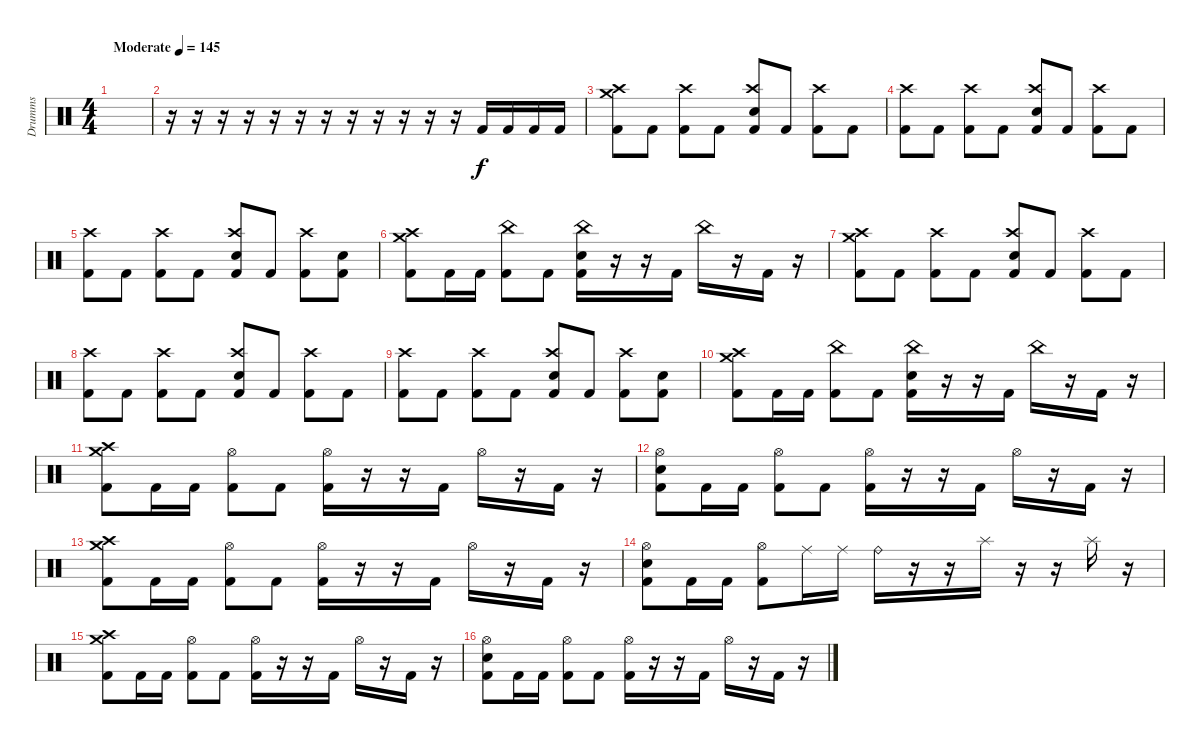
\track ("Drumms" "Drumms") {instrument percussion}
\staff {score}
\articulation defaults
\ts (4 4)
\tempo (145 "Moderate")
\clef neutral
\ks c
|
r.16 r.16 r.16 r.16 r.16 r.16 r.16 r.16 r.16 r.16 r.16 r.16 "Kick (hit) 2".16 "Kick (hit) 2".16 "Kick (hit) 2".16 "Kick (hit) 2".16 |
("Crash high (hit)" "Crash medium (hit)" "Kick (hit) 2").8 "Kick (hit) 2".8 ("Crash high (hit)" "Kick (hit) 2").8 "Kick (hit) 2".8 ("Crash high (hit)" "Electric Snare (hit)" "Kick (hit) 2").8 "Kick (hit) 2".8 ("Crash high (hit)" "Kick (hit) 2").8 "Kick (hit) 2".8 |
("Crash high (hit)" "Kick (hit) 2").8 "Kick (hit) 2".8 ("Crash high (hit)" "Kick (hit) 2").8 "Kick (hit) 2".8 ("Crash high (hit)" "Electric Snare (hit)" "Kick (hit) 2").8 "Kick (hit) 2".8 ("Crash high (hit)" "Kick (hit) 2").8 "Kick (hit) 2".8 |
("Crash high (hit)" "Kick (hit) 2").8 "Kick (hit) 2".8 ("Crash high (hit)" "Kick (hit) 2").8 "Kick (hit) 2".8 ("Crash high (hit)" "Electric Snare (hit)" "Kick (hit) 2").8 "Kick (hit) 2".8 ("Crash high (hit)" "Kick (hit) 2").8 ("Electric Snare (hit)" "Kick (hit) 2").8 |
("Crash high (hit)" "Crash medium (hit)" "Kick (hit) 2").8 "Kick (hit) 2".16 "Kick (hit) 2".16 ("China (hit)" "Kick (hit) 2").8 "Kick (hit) 2".8 ("China (hit)" "Electric Snare (hit)" "Kick (hit) 2").16 r.16 r.16 "Kick (hit) 2".16 "China (hit)".16 r.16 "Kick (hit) 2".16 r.16 |
("Crash high (hit)" "Crash medium (hit)" "Kick (hit) 2").8 "Kick (hit) 2".8 ("Crash high (hit)" "Kick (hit) 2").8 "Kick (hit) 2".8 ("Crash high (hit)" "Electric Snare (hit)" "Kick (hit) 2").8 "Kick (hit) 2".8 ("Crash high (hit)" "Kick (hit) 2").8 "Kick (hit) 2".8 |
("Crash high (hit)" "Kick (hit) 2").8 "Kick (hit) 2".8 ("Crash high (hit)" "Kick (hit) 2").8 "Kick (hit) 2".8 ("Crash high (hit)" "Electric Snare (hit)" "Kick (hit) 2").8 "Kick (hit) 2".8 ("Crash high (hit)" "Kick (hit) 2").8 "Kick (hit) 2".8 |
("Crash high (hit)" "Kick (hit) 2").8 "Kick (hit) 2".8 ("Crash high (hit)" "Kick (hit) 2").8 "Kick (hit) 2".8 ("Crash high (hit)" "Electric Snare (hit)" "Kick (hit) 2").8 "Kick (hit) 2".8 ("Crash high (hit)" "Kick (hit) 2").8 ("Electric Snare (hit)" "Kick (hit) 2").8 |
("Crash high (hit)" "Crash medium (hit)" "Kick (hit) 2").8 "Kick (hit) 2".16 "Kick (hit) 2".16 ("China (hit)" "Kick (hit) 2").8 "Kick (hit) 2".8 ("China (hit)" "Electric Snare (hit)" "Kick (hit) 2").16 r.16 r.16 "Kick (hit) 2".16 "China (hit)".16 r.16 "Kick (hit) 2".16 r.16 |
("Crash high (hit)" "Crash medium (hit)" "Kick (hit) 2").8 "Kick (hit) 2".16 "Kick (hit) 2".16 ("Hi-Hat (open)" "Kick (hit) 2").8 "Kick (hit) 2".8 ("Hi-Hat (open)" "Kick (hit) 2").16 r.16 r.16 "Kick (hit) 2".16 "Hi-Hat (open)".16 r.16 "Kick (hit) 2".16 r.16 |
("Hi-Hat (open)" "Electric Snare (hit)" "Kick (hit) 2").8 "Kick (hit) 2".16 "Kick (hit) 2".16 ("Hi-Hat (open)" "Kick (hit) 2").8 "Kick (hit) 2".8 ("Hi-Hat (open)" "Kick (hit) 2").16 r.16 r.16 "Kick (hit) 2".16 "Hi-Hat (open)".16 r.16 "Kick (hit) 2".16 r.16 |
("Crash high (hit)" "Crash medium (hit)" "Kick (hit) 2").8 "Kick (hit) 2".16 "Kick (hit) 2".16 ("Hi-Hat (open)" "Kick (hit) 2").8 "Kick (hit) 2".8 ("Hi-Hat (open)" "Kick (hit) 2").16 r.16 r.16 "Kick (hit) 2".16 "Hi-Hat (open)".16 r.16 "Kick (hit) 2".16 r.16 |
("Hi-Hat (open)" "Electric Snare (hit)" "Kick (hit) 2").8 "Kick (hit) 2".16 "Kick (hit) 2".16 ("Hi-Hat (open)" "Kick (hit) 2").8 "Ride (middle)".16 "Ride (middle)".16 "Ride (bell)".16 r.16 r.16 "Splash (hit)".16 r.16 r.16 "Splash (hit)".16 r.16 |
("Crash high (hit)" "Crash medium (hit)" "Kick (hit) 2").8 "Kick (hit) 2".16 "Kick (hit) 2".16 ("Hi-Hat (open)" "Kick (hit) 2").8 "Kick (hit) 2".8 ("Hi-Hat (open)" "Kick (hit) 2").16 r.16 r.16 "Kick (hit) 2".16 "Hi-Hat (open)".16 r.16 "Kick (hit) 2".16 r.16 |
("Hi-Hat (open)" "Electric Snare (hit)" "Kick (hit) 2").8 "Kick (hit) 2".16 "Kick (hit) 2".16 ("Hi-Hat (open)" "Kick (hit) 2").8 "Kick (hit) 2".8 ("Hi-Hat (open)" "Kick (hit) 2").16 r.16 r.16 "Kick (hit) 2".16 "Hi-Hat (open)".16 r.16 "Kick (hit) 2".16 r.16
